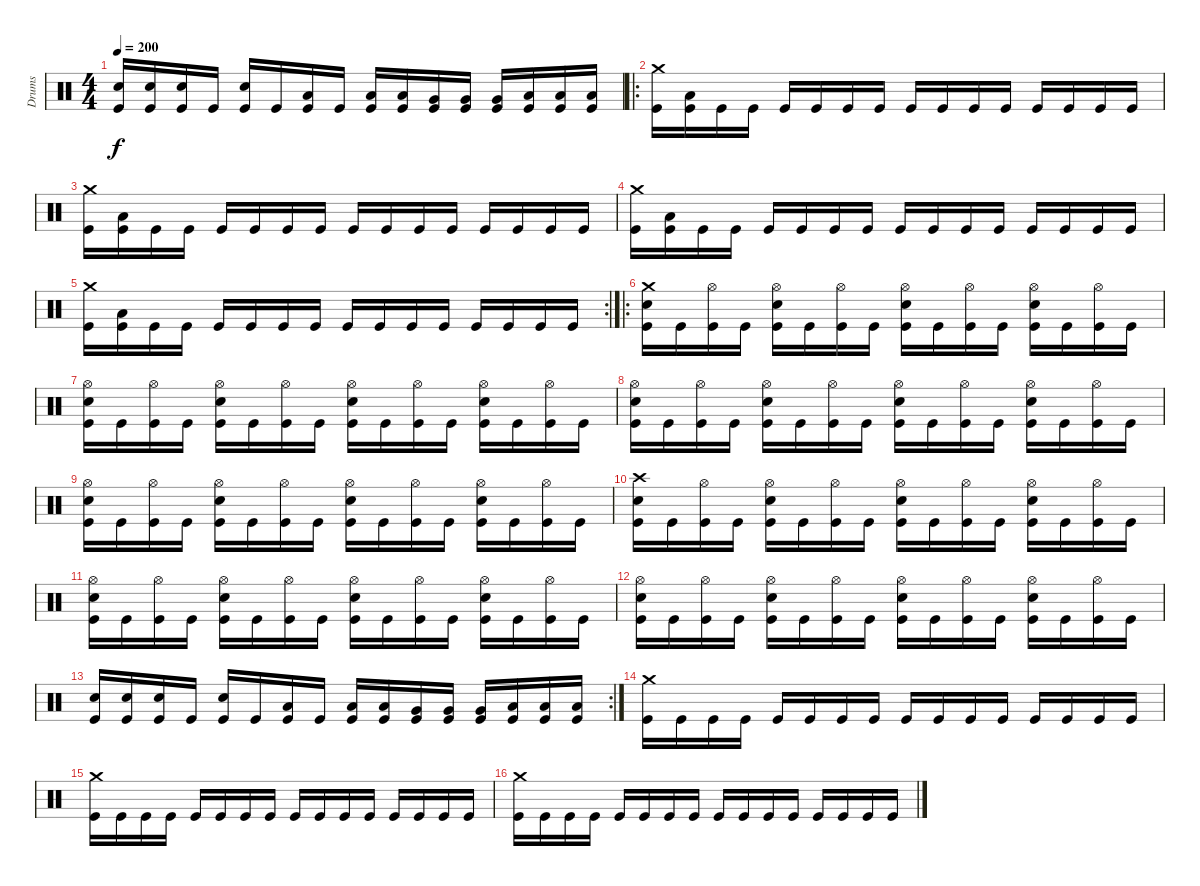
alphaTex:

\track ("Drums" "Drums") {instrument percussion}
\staff {score}
\articulation defaults
\ts (4 4)
\tempo 200
\clef neutral
\ks c
("Electric Snare (hit)" "Kick (hit)").16{dy f} ("Electric Snare (hit)" "Kick (hit)").16 ("Electric Snare (hit)" "Kick (hit)").16 "Kick (hit)".16 ("Electric Snare (hit)" "Kick (hit)").16 "Kick (hit)".16 ("Low Tom (hit)" "Kick (hit)").16 "Kick (hit)".16 ("Low Tom (hit)" "Kick (hit)").16 ("Low Tom (hit)" "Kick (hit)").16 ("Very Low Tom (hit)" "Kick (hit)").16 ("Very Low Tom (hit)" "Kick (hit)").16 ("Very Low Tom (hit)" "Kick (hit)").16 ("Low Floor Tom (hit)" "Kick (hit)").16 ("Low Floor Tom (hit)" "Kick (hit)").16 ("Low Floor Tom (hit)" "Kick (hit)").16 |
\ro
("Crash medium (hit)" "Kick (hit)").16 ("Low Tom (hit)" "Kick (hit)").16 "Kick (hit)".16 "Kick (hit)".16 "Kick (hit)".16 "Kick (hit)".16 "Kick (hit)".16 "Kick (hit)".16 "Kick (hit)".16 "Kick (hit)".16 "Kick (hit)".16 "Kick (hit)".16 "Kick (hit)".16 "Kick (hit)".16 "Kick (hit)".16 "Kick (hit)".16 |
("Crash medium (hit)" "Kick (hit)").16 ("Low Tom (hit)" "Kick (hit)").16 "Kick (hit)".16 "Kick (hit)".16 "Kick (hit)".16 "Kick (hit)".16 "Kick (hit)".16 "Kick (hit)".16 "Kick (hit)".16 "Kick (hit)".16 "Kick (hit)".16 "Kick (hit)".16 "Kick (hit)".16 "Kick (hit)".16 "Kick (hit)".16 "Kick (hit)".16 |
("Crash medium (hit)" "Kick (hit)").16 ("Low Tom (hit)" "Kick (hit)").16 "Kick (hit)".16 "Kick (hit)".16 "Kick (hit)".16 "Kick (hit)".16 "Kick (hit)".16 "Kick (hit)".16 "Kick (hit)".16 "Kick (hit)".16 "Kick (hit)".16 "Kick (hit)".16 "Kick (hit)".16 "Kick (hit)".16 "Kick (hit)".16 "Kick (hit)".16 |
\rc 2
("Crash medium (hit)" "Kick (hit)").16 ("Low Tom (hit)" "Kick (hit)").16 "Kick (hit)".16 "Kick (hit)".16 "Kick (hit)".16 "Kick (hit)".16 "Kick (hit)".16 "Kick (hit)".16 "Kick (hit)".16 "Kick (hit)".16 "Kick (hit)".16 "Kick (hit)".16 "Kick (hit)".16 "Kick (hit)".16 "Kick (hit)".16 "Kick (hit)".16 |
\ro
("Crash medium (hit)" "Electric Snare (hit)" "Kick (hit)").16 "Kick (hit)".16 ("Hi-Hat (open)" "Kick (hit)").16 "Kick (hit)".16 ("Hi-Hat (open)" "Electric Snare (hit)" "Kick (hit)").16 "Kick (hit)".16 ("Hi-Hat (open)" "Kick (hit)").16 "Kick (hit)".16 ("Hi-Hat (open)" "Electric Snare (hit)" "Kick (hit)").16 "Kick (hit)".16 ("Hi-Hat (open)" "Kick (hit)").16 "Kick (hit)".16 ("Hi-Hat (open)" "Electric Snare (hit)" "Kick (hit)").16 "Kick (hit)".16 ("Hi-Hat (open)" "Kick (hit)").16 "Kick (hit)".16 |
("Hi-Hat (open)" "Electric Snare (hit)" "Kick (hit)").16 "Kick (hit)".16 ("Hi-Hat (open)" "Kick (hit)").16 "Kick (hit)".16 ("Hi-Hat (open)" "Electric Snare (hit)" "Kick (hit)").16 "Kick (hit)".16 ("Hi-Hat (open)" "Kick (hit)").16 "Kick (hit)".16 ("Hi-Hat (open)" "Electric Snare (hit)" "Kick (hit)").16 "Kick (hit)".16 ("Hi-Hat (open)" "Kick (hit)").16 "Kick (hit)".16 ("Hi-Hat (open)" "Electric Snare (hit)" "Kick (hit)").16 "Kick (hit)".16 ("Hi-Hat (open)" "Kick (hit)").16 "Kick (hit)".16 |
("Hi-Hat (open)" "Electric Snare (hit)" "Kick (hit)").16 "Kick (hit)".16 ("Hi-Hat (open)" "Kick (hit)").16 "Kick (hit)".16 ("Hi-Hat (open)" "Electric Snare (hit)" "Kick (hit)").16 "Kick (hit)".16 ("Hi-Hat (open)" "Kick (hit)").16 "Kick (hit)".16 ("Hi-Hat (open)" "Electric Snare (hit)" "Kick (hit)").16 "Kick (hit)".16 ("Hi-Hat (open)" "Kick (hit)").16 "Kick (hit)".16 ("Hi-Hat (open)" "Electric Snare (hit)" "Kick (hit)").16 "Kick (hit)".16 ("Hi-Hat (open)" "Kick (hit)").16 "Kick (hit)".16 |
("Hi-Hat (open)" "Electric Snare (hit)" "Kick (hit)").16 "Kick (hit)".16 ("Hi-Hat (open)" "Kick (hit)").16 "Kick (hit)".16 ("Hi-Hat (open)" "Electric Snare (hit)" "Kick (hit)").16 "Kick (hit)".16 ("Hi-Hat (open)" "Kick (hit)").16 "Kick (hit)".16 ("Hi-Hat (open)" "Electric Snare (hit)" "Kick (hit)").16 "Kick (hit)".16 ("Hi-Hat (open)" "Kick (hit)").16 "Kick (hit)".16 ("Hi-Hat (open)" "Electric Snare (hit)" "Kick (hit)").16 "Kick (hit)".16 ("Hi-Hat (open)" "Kick (hit)").16 "Kick (hit)".16 |
("Crash high (hit)" "Electric Snare (hit)" "Kick (hit)").16 "Kick (hit)".16 ("Hi-Hat (open)" "Kick (hit)").16 "Kick (hit)".16 ("Hi-Hat (open)" "Electric Snare (hit)" "Kick (hit)").16 "Kick (hit)".16 ("Hi-Hat (open)" "Kick (hit)").16 "Kick (hit)".16 ("Hi-Hat (open)" "Electric Snare (hit)" "Kick (hit)").16 "Kick (hit)".16 ("Hi-Hat (open)" "Kick (hit)").16 "Kick (hit)".16 ("Hi-Hat (open)" "Electric Snare (hit)" "Kick (hit)").16 "Kick (hit)".16 ("Hi-Hat (open)" "Kick (hit)").16 "Kick (hit)".16 |
("Hi-Hat (open)" "Electric Snare (hit)" "Kick (hit)").16 "Kick (hit)".16 ("Hi-Hat (open)" "Kick (hit)").16 "Kick (hit)".16 ("Hi-Hat (open)" "Electric Snare (hit)" "Kick (hit)").16 "Kick (hit)".16 ("Hi-Hat (open)" "Kick (hit)").16 "Kick (hit)".16 ("Hi-Hat (open)" "Electric Snare (hit)" "Kick (hit)").16 "Kick (hit)".16 ("Hi-Hat (open)" "Kick (hit)").16 "Kick (hit)".16 ("Hi-Hat (open)" "Electric Snare (hit)" "Kick (hit)").16 "Kick (hit)".16 ("Hi-Hat (open)" "Kick (hit)").16 "Kick (hit)".16 |
("Hi-Hat (open)" "Electric Snare (hit)" "Kick (hit)").16 "Kick (hit)".16 ("Hi-Hat (open)" "Kick (hit)").16 "Kick (hit)".16 ("Hi-Hat (open)" "Electric Snare (hit)" "Kick (hit)").16 "Kick (hit)".16 ("Hi-Hat (open)" "Kick (hit)").16 "Kick (hit)".16 ("Hi-Hat (open)" "Electric Snare (hit)" "Kick (hit)").16 "Kick (hit)".16 ("Hi-Hat (open)" "Kick (hit)").16 "Kick (hit)".16 ("Hi-Hat (open)" "Electric Snare (hit)" "Kick (hit)").16 "Kick (hit)".16 ("Hi-Hat (open)" "Kick (hit)").16 "Kick (hit)".16 |
\rc 2
("Electric Snare (hit)" "Kick (hit)").16 ("Electric Snare (hit)" "Kick (hit)").16 ("Electric Snare (hit)" "Kick (hit)").16 "Kick (hit)".16 ("Electric Snare (hit)" "Kick (hit)").16 "Kick (hit)".16 ("Low Tom (hit)" "Kick (hit)").16 "Kick (hit)".16 ("Low Tom (hit)" "Kick (hit)").16 ("Low Tom (hit)" "Kick (hit)").16 ("Very Low Tom (hit)" "Kick (hit)").16 ("Very Low Tom (hit)" "Kick (hit)").16 ("Very Low Tom (hit)" "Kick (hit)").16 ("Low Floor Tom (hit)" "Kick (hit)").16 ("Low Floor Tom (hit)" "Kick (hit)").16 ("Low Floor Tom (hit)" "Kick (hit)").16 |
("Crash medium (hit)" "Kick (hit)").16 "Kick (hit)".16 "Kick (hit)".16 "Kick (hit)".16 "Kick (hit)".16 "Kick (hit)".16 "Kick (hit)".16 "Kick (hit)".16 "Kick (hit)".16 "Kick (hit)".16 "Kick (hit)".16 "Kick (hit)".16 "Kick (hit)".16 "Kick (hit)".16 "Kick (hit)".16 "Kick (hit)".16 |
("Crash medium (hit)" "Kick (hit)").16 "Kick (hit)".16 "Kick (hit)".16 "Kick (hit)".16 "Kick (hit)".16 "Kick (hit)".16 "Kick (hit)".16 "Kick (hit)".16 "Kick (hit)".16 "Kick (hit)".16 "Kick (hit)".16 "Kick (hit)".16 "Kick (hit)".16 "Kick (hit)".16 "Kick (hit)".16 "Kick (hit)".16 |
("Crash medium (hit)" "Kick (hit)").16 "Kick (hit)".16 "Kick (hit)".16 "Kick (hit)".16 "Kick (hit)".16 "Kick (hit)".16 "Kick (hit)".16 "Kick (hit)".16 "Kick (hit)".16 "Kick (hit)".16 "Kick (hit)".16 "Kick (hit)".16 "Kick (hit)".16 "Kick (hit)".16 "Kick (hit)".16 "Kick (hit)".16
